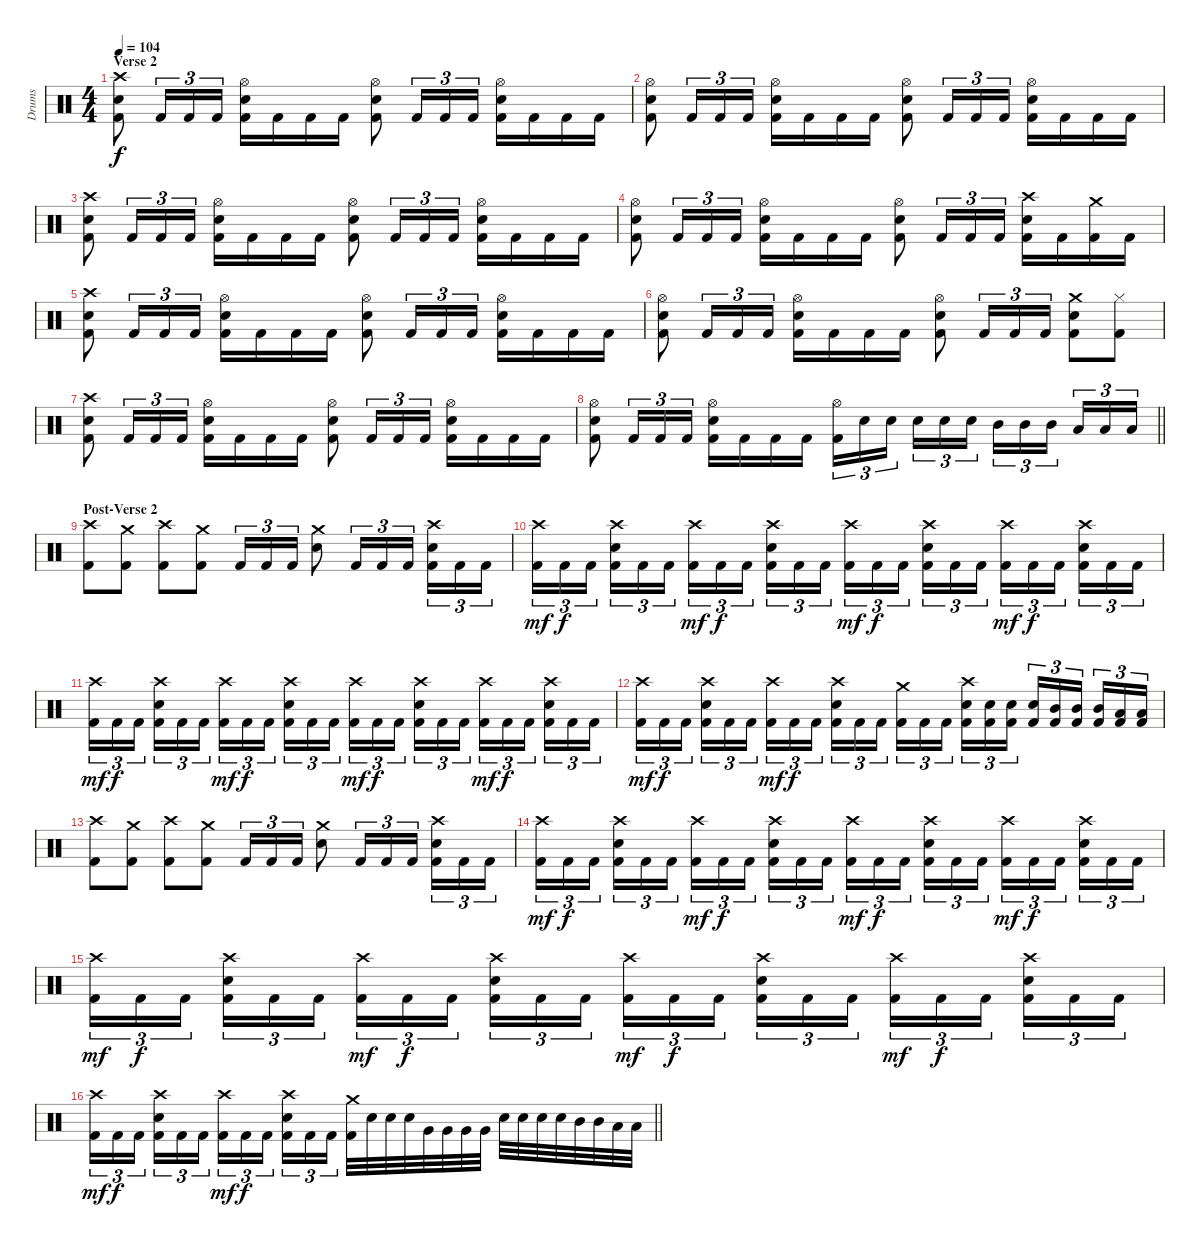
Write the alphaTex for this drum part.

\track ("Drums" "Drums") {instrument percussion}
\staff {score}
\articulation defaults
\ts (4 4)
\section ("" "Verse 2")
\tempo 104
\clef neutral
\ks c
("Crash high (hit)" "Electric Snare (hit)" "Kick (hit) 2").8{dy f} "Kick (hit) 2".16{tu (3 2)} "Kick (hit) 2".16{tu (3 2)} "Kick (hit) 2".16{tu (3 2)} ("Hi-Hat (open)" "Electric Snare (hit)" "Kick (hit) 2").16 "Kick (hit) 2".16 "Kick (hit) 2".16 "Kick (hit) 2".16 ("Hi-Hat (open)" "Electric Snare (hit)" "Kick (hit) 2").8 "Kick (hit) 2".16{tu (3 2)} "Kick (hit) 2".16{tu (3 2)} "Kick (hit) 2".16{tu (3 2)} ("Hi-Hat (open)" "Electric Snare (hit)" "Kick (hit) 2").16 "Kick (hit) 2".16 "Kick (hit) 2".16 "Kick (hit) 2".16 |
("Hi-Hat (open)" "Electric Snare (hit)" "Kick (hit) 2").8 "Kick (hit) 2".16{tu (3 2)} "Kick (hit) 2".16{tu (3 2)} "Kick (hit) 2".16{tu (3 2)} ("Hi-Hat (open)" "Electric Snare (hit)" "Kick (hit) 2").16 "Kick (hit) 2".16 "Kick (hit) 2".16 "Kick (hit) 2".16 ("Hi-Hat (open)" "Electric Snare (hit)" "Kick (hit) 2").8 "Kick (hit) 2".16{tu (3 2)} "Kick (hit) 2".16{tu (3 2)} "Kick (hit) 2".16{tu (3 2)} ("Hi-Hat (open)" "Electric Snare (hit)" "Kick (hit) 2").16 "Kick (hit) 2".16 "Kick (hit) 2".16 "Kick (hit) 2".16 |
("Crash high (hit)" "Electric Snare (hit)" "Kick (hit) 2").8 "Kick (hit) 2".16{tu (3 2)} "Kick (hit) 2".16{tu (3 2)} "Kick (hit) 2".16{tu (3 2)} ("Hi-Hat (open)" "Electric Snare (hit)" "Kick (hit) 2").16 "Kick (hit) 2".16 "Kick (hit) 2".16 "Kick (hit) 2".16 ("Hi-Hat (open)" "Electric Snare (hit)" "Kick (hit) 2").8 "Kick (hit) 2".16{tu (3 2)} "Kick (hit) 2".16{tu (3 2)} "Kick (hit) 2".16{tu (3 2)} ("Hi-Hat (open)" "Electric Snare (hit)" "Kick (hit) 2").16 "Kick (hit) 2".16 "Kick (hit) 2".16 "Kick (hit) 2".16 |
("Hi-Hat (open)" "Electric Snare (hit)" "Kick (hit) 2").8 "Kick (hit) 2".16{tu (3 2)} "Kick (hit) 2".16{tu (3 2)} "Kick (hit) 2".16{tu (3 2)} ("Hi-Hat (open)" "Electric Snare (hit)" "Kick (hit) 2").16 "Kick (hit) 2".16 "Kick (hit) 2".16 "Kick (hit) 2".16 ("Hi-Hat (open)" "Electric Snare (hit)" "Kick (hit) 2").8 "Kick (hit) 2".16{tu (3 2)} "Kick (hit) 2".16{tu (3 2)} "Kick (hit) 2".16{tu (3 2)} ("Crash high (hit)" "Electric Snare (hit)" "Kick (hit) 2").16 "Kick (hit) 2".16 ("Crash medium (hit)" "Kick (hit) 2").16 "Kick (hit) 2".16 |
("Crash high (hit)" "Electric Snare (hit)" "Kick (hit) 2").8 "Kick (hit) 2".16{tu (3 2)} "Kick (hit) 2".16{tu (3 2)} "Kick (hit) 2".16{tu (3 2)} ("Hi-Hat (open)" "Electric Snare (hit)" "Kick (hit) 2").16 "Kick (hit) 2".16 "Kick (hit) 2".16 "Kick (hit) 2".16 ("Hi-Hat (open)" "Electric Snare (hit)" "Kick (hit) 2").8 "Kick (hit) 2".16{tu (3 2)} "Kick (hit) 2".16{tu (3 2)} "Kick (hit) 2".16{tu (3 2)} ("Hi-Hat (open)" "Electric Snare (hit)" "Kick (hit) 2").16 "Kick (hit) 2".16 "Kick (hit) 2".16 "Kick (hit) 2".16 |
("Hi-Hat (open)" "Electric Snare (hit)" "Kick (hit) 2").8 "Kick (hit) 2".16{tu (3 2)} "Kick (hit) 2".16{tu (3 2)} "Kick (hit) 2".16{tu (3 2)} ("Hi-Hat (open)" "Electric Snare (hit)" "Kick (hit) 2").16 "Kick (hit) 2".16 "Kick (hit) 2".16 "Kick (hit) 2".16 ("Hi-Hat (open)" "Electric Snare (hit)" "Kick (hit) 2").8 "Kick (hit) 2".16{tu (3 2)} "Kick (hit) 2".16{tu (3 2)} "Kick (hit) 2".16{tu (3 2)} ("Crash medium (hit)" "Electric Snare (hit)" "Kick (hit) 2").8 ("Hi-Hat (closed)" "Kick (hit) 2").8 |
("Crash high (hit)" "Electric Snare (hit)" "Kick (hit) 2").8 "Kick (hit) 2".16{tu (3 2)} "Kick (hit) 2".16{tu (3 2)} "Kick (hit) 2".16{tu (3 2)} ("Hi-Hat (open)" "Electric Snare (hit)" "Kick (hit) 2").16 "Kick (hit) 2".16 "Kick (hit) 2".16 "Kick (hit) 2".16 ("Hi-Hat (open)" "Electric Snare (hit)" "Kick (hit) 2").8 "Kick (hit) 2".16{tu (3 2)} "Kick (hit) 2".16{tu (3 2)} "Kick (hit) 2".16{tu (3 2)} ("Hi-Hat (open)" "Electric Snare (hit)" "Kick (hit) 2").16 "Kick (hit) 2".16 "Kick (hit) 2".16 "Kick (hit) 2".16 |
\barLineRight lightlight
("Hi-Hat (open)" "Electric Snare (hit)" "Kick (hit) 2").8 "Kick (hit) 2".16{tu (3 2)} "Kick (hit) 2".16{tu (3 2)} "Kick (hit) 2".16{tu (3 2)} ("Hi-Hat (open)" "Electric Snare (hit)" "Kick (hit) 2").16 "Kick (hit) 2".16 "Kick (hit) 2".16 "Kick (hit) 2".16 ("Hi-Hat (open)" "Kick (hit) 2").16{tu (3 2)} "Electric Snare (hit)".16{tu (3 2)} "Electric Snare (hit)".16{tu (3 2) beam splitsecondary} "Electric Snare (hit)".16{tu (3 2)} "Electric Snare (hit)".16{tu (3 2)} "Electric Snare (hit)".16{tu (3 2)} "Mid Tom (hit)".16{tu (3 2)} "Mid Tom (hit)".16{tu (3 2)} "Mid Tom (hit)".16{tu (3 2) beam splitsecondary} "Low Tom (hit)".16{tu (3 2)} "Low Tom (hit)".16{tu (3 2)} "Low Tom (hit)".16{tu (3 2)} |
\section ("" "Post-Verse 2")
("Crash high (hit)" "Kick (hit) 2").8 ("Crash medium (hit)" "Kick (hit) 2").8 ("Crash high (hit)" "Kick (hit) 2").8 ("Crash medium (hit)" "Kick (hit) 2").8 "Kick (hit) 2".16{tu (3 2)} "Kick (hit) 2".16{tu (3 2)} "Kick (hit) 2".16{tu (3 2)} ("Crash medium (hit)" "Electric Snare (hit)").8 "Kick (hit) 2".16{tu (3 2)} "Kick (hit) 2".16{tu (3 2)} "Kick (hit) 2".16{tu (3 2) beam splitsecondary} ("Crash high (hit)" "Electric Snare (hit)" "Kick (hit) 2").16{tu (3 2)} "Kick (hit) 2".16{tu (3 2)} "Kick (hit) 2".16{tu (3 2)} |
("Crash high (hit)" "Kick (hit) 2").16{tu (3 2) dy mf} "Kick (hit) 2".16{tu (3 2) dy f} "Kick (hit) 2".16{tu (3 2) beam splitsecondary} ("Crash high (hit)" "Electric Snare (hit)" "Kick (hit) 2").16{tu (3 2)} "Kick (hit) 2".16{tu (3 2)} "Kick (hit) 2".16{tu (3 2)} ("Crash high (hit)" "Kick (hit) 2").16{tu (3 2) dy mf} "Kick (hit) 2".16{tu (3 2) dy f} "Kick (hit) 2".16{tu (3 2) beam splitsecondary} ("Crash high (hit)" "Electric Snare (hit)" "Kick (hit) 2").16{tu (3 2)} "Kick (hit) 2".16{tu (3 2)} "Kick (hit) 2".16{tu (3 2)} ("Crash high (hit)" "Kick (hit) 2").16{tu (3 2) dy mf} "Kick (hit) 2".16{tu (3 2) dy f} "Kick (hit) 2".16{tu (3 2) beam splitsecondary} ("Crash high (hit)" "Electric Snare (hit)" "Kick (hit) 2").16{tu (3 2)} "Kick (hit) 2".16{tu (3 2)} "Kick (hit) 2".16{tu (3 2)} ("Crash high (hit)" "Kick (hit) 2").16{tu (3 2) dy mf} "Kick (hit) 2".16{tu (3 2) dy f} "Kick (hit) 2".16{tu (3 2) beam splitsecondary} ("Crash high (hit)" "Electric Snare (hit)" "Kick (hit) 2").16{tu (3 2)} "Kick (hit) 2".16{tu (3 2)} "Kick (hit) 2".16{tu (3 2)} |
("Crash high (hit)" "Kick (hit) 2").16{tu (3 2) dy mf} "Kick (hit) 2".16{tu (3 2) dy f} "Kick (hit) 2".16{tu (3 2) beam splitsecondary} ("Crash high (hit)" "Electric Snare (hit)" "Kick (hit) 2").16{tu (3 2)} "Kick (hit) 2".16{tu (3 2)} "Kick (hit) 2".16{tu (3 2)} ("Crash high (hit)" "Kick (hit) 2").16{tu (3 2) dy mf} "Kick (hit) 2".16{tu (3 2) dy f} "Kick (hit) 2".16{tu (3 2) beam splitsecondary} ("Crash high (hit)" "Electric Snare (hit)" "Kick (hit) 2").16{tu (3 2)} "Kick (hit) 2".16{tu (3 2)} "Kick (hit) 2".16{tu (3 2)} ("Crash high (hit)" "Kick (hit) 2").16{tu (3 2) dy mf} "Kick (hit) 2".16{tu (3 2) dy f} "Kick (hit) 2".16{tu (3 2) beam splitsecondary} ("Crash high (hit)" "Electric Snare (hit)" "Kick (hit) 2").16{tu (3 2)} "Kick (hit) 2".16{tu (3 2)} "Kick (hit) 2".16{tu (3 2)} ("Crash high (hit)" "Kick (hit) 2").16{tu (3 2) dy mf} "Kick (hit) 2".16{tu (3 2) dy f} "Kick (hit) 2".16{tu (3 2) beam splitsecondary} ("Crash high (hit)" "Electric Snare (hit)" "Kick (hit) 2").16{tu (3 2)} "Kick (hit) 2".16{tu (3 2)} "Kick (hit) 2".16{tu (3 2)} |
("Crash high (hit)" "Kick (hit) 2").16{tu (3 2) dy mf} "Kick (hit) 2".16{tu (3 2) dy f} "Kick (hit) 2".16{tu (3 2) beam splitsecondary} ("Crash high (hit)" "Electric Snare (hit)" "Kick (hit) 2").16{tu (3 2)} "Kick (hit) 2".16{tu (3 2)} "Kick (hit) 2".16{tu (3 2)} ("Crash high (hit)" "Kick (hit) 2").16{tu (3 2) dy mf} "Kick (hit) 2".16{tu (3 2) dy f} "Kick (hit) 2".16{tu (3 2) beam splitsecondary} ("Crash high (hit)" "Electric Snare (hit)" "Kick (hit) 2").16{tu (3 2)} "Kick (hit) 2".16{tu (3 2)} "Kick (hit) 2".16{tu (3 2)} ("Crash medium (hit)" "Kick (hit) 2").16{tu (3 2)} "Kick (hit) 2".16{tu (3 2)} "Kick (hit) 2".16{tu (3 2) beam splitsecondary} ("Crash high (hit)" "Electric Snare (hit)" "Kick (hit) 2").16{tu (3 2)} ("Electric Snare (hit)" "Kick (hit) 2").16{tu (3 2)} ("Electric Snare (hit)" "Kick (hit) 2").16{tu (3 2)} ("Electric Snare (hit)" "Kick (hit) 2").16{tu (3 2)} ("Mid Tom (hit)" "Kick (hit) 2").16{tu (3 2)} ("Mid Tom (hit)" "Kick (hit) 2").16{tu (3 2) beam splitsecondary} ("Mid Tom (hit)" "Kick (hit) 2").16{tu (3 2)} ("Low Tom (hit)" "Kick (hit) 2").16{tu (3 2)} ("Low Tom (hit)" "Kick (hit) 2").16{tu (3 2)} |
("Crash high (hit)" "Kick (hit) 2").8 ("Crash medium (hit)" "Kick (hit) 2").8 ("Crash high (hit)" "Kick (hit) 2").8 ("Crash medium (hit)" "Kick (hit) 2").8 "Kick (hit) 2".16{tu (3 2)} "Kick (hit) 2".16{tu (3 2)} "Kick (hit) 2".16{tu (3 2)} ("Crash medium (hit)" "Electric Snare (hit)").8 "Kick (hit) 2".16{tu (3 2)} "Kick (hit) 2".16{tu (3 2)} "Kick (hit) 2".16{tu (3 2) beam splitsecondary} ("Crash high (hit)" "Electric Snare (hit)" "Kick (hit) 2").16{tu (3 2)} "Kick (hit) 2".16{tu (3 2)} "Kick (hit) 2".16{tu (3 2)} |
("Crash high (hit)" "Kick (hit) 2").16{tu (3 2) dy mf} "Kick (hit) 2".16{tu (3 2) dy f} "Kick (hit) 2".16{tu (3 2) beam splitsecondary} ("Crash high (hit)" "Electric Snare (hit)" "Kick (hit) 2").16{tu (3 2)} "Kick (hit) 2".16{tu (3 2)} "Kick (hit) 2".16{tu (3 2)} ("Crash high (hit)" "Kick (hit) 2").16{tu (3 2) dy mf} "Kick (hit) 2".16{tu (3 2) dy f} "Kick (hit) 2".16{tu (3 2) beam splitsecondary} ("Crash high (hit)" "Electric Snare (hit)" "Kick (hit) 2").16{tu (3 2)} "Kick (hit) 2".16{tu (3 2)} "Kick (hit) 2".16{tu (3 2)} ("Crash high (hit)" "Kick (hit) 2").16{tu (3 2) dy mf} "Kick (hit) 2".16{tu (3 2) dy f} "Kick (hit) 2".16{tu (3 2) beam splitsecondary} ("Crash high (hit)" "Electric Snare (hit)" "Kick (hit) 2").16{tu (3 2)} "Kick (hit) 2".16{tu (3 2)} "Kick (hit) 2".16{tu (3 2)} ("Crash high (hit)" "Kick (hit) 2").16{tu (3 2) dy mf} "Kick (hit) 2".16{tu (3 2) dy f} "Kick (hit) 2".16{tu (3 2) beam splitsecondary} ("Crash high (hit)" "Electric Snare (hit)" "Kick (hit) 2").16{tu (3 2)} "Kick (hit) 2".16{tu (3 2)} "Kick (hit) 2".16{tu (3 2)} |
("Crash high (hit)" "Kick (hit) 2").16{tu (3 2) dy mf} "Kick (hit) 2".16{tu (3 2) dy f} "Kick (hit) 2".16{tu (3 2) beam splitsecondary} ("Crash high (hit)" "Electric Snare (hit)" "Kick (hit) 2").16{tu (3 2)} "Kick (hit) 2".16{tu (3 2)} "Kick (hit) 2".16{tu (3 2)} ("Crash high (hit)" "Kick (hit) 2").16{tu (3 2) dy mf} "Kick (hit) 2".16{tu (3 2) dy f} "Kick (hit) 2".16{tu (3 2) beam splitsecondary} ("Crash high (hit)" "Electric Snare (hit)" "Kick (hit) 2").16{tu (3 2)} "Kick (hit) 2".16{tu (3 2)} "Kick (hit) 2".16{tu (3 2)} ("Crash high (hit)" "Kick (hit) 2").16{tu (3 2) dy mf} "Kick (hit) 2".16{tu (3 2) dy f} "Kick (hit) 2".16{tu (3 2) beam splitsecondary} ("Crash high (hit)" "Electric Snare (hit)" "Kick (hit) 2").16{tu (3 2)} "Kick (hit) 2".16{tu (3 2)} "Kick (hit) 2".16{tu (3 2)} ("Crash high (hit)" "Kick (hit) 2").16{tu (3 2) dy mf} "Kick (hit) 2".16{tu (3 2) dy f} "Kick (hit) 2".16{tu (3 2) beam splitsecondary} ("Crash high (hit)" "Electric Snare (hit)" "Kick (hit) 2").16{tu (3 2)} "Kick (hit) 2".16{tu (3 2)} "Kick (hit) 2".16{tu (3 2)} |
\barLineRight lightlight
("Crash high (hit)" "Kick (hit) 2").16{tu (3 2) dy mf} "Kick (hit) 2".16{tu (3 2) dy f} "Kick (hit) 2".16{tu (3 2) beam splitsecondary} ("Crash high (hit)" "Electric Snare (hit)" "Kick (hit) 2").16{tu (3 2)} "Kick (hit) 2".16{tu (3 2)} "Kick (hit) 2".16{tu (3 2)} ("Crash high (hit)" "Kick (hit) 2").16{tu (3 2) dy mf} "Kick (hit) 2".16{tu (3 2) dy f} "Kick (hit) 2".16{tu (3 2) beam splitsecondary} ("Crash high (hit)" "Electric Snare (hit)" "Kick (hit) 2").16{tu (3 2)} "Kick (hit) 2".16{tu (3 2)} "Kick (hit) 2".16{tu (3 2)} ("Crash medium (hit)" "Kick (hit) 2").32 "Electric Snare (hit)".32 "Electric Snare (hit)".32 "Electric Snare (hit)".32 "Very Low Tom (hit)".32 "Very Low Tom (hit)".32 "Very Low Tom (hit)".32 "Very Low Tom (hit)".32 "Electric Snare (hit)".32 "Electric Snare (hit)".32 "Electric Snare (hit)".32 "Electric Snare (hit)".32 "Mid Tom (hit)".32 "Mid Tom (hit)".32 "Low Tom (hit)".32 "Low Tom (hit)".32
